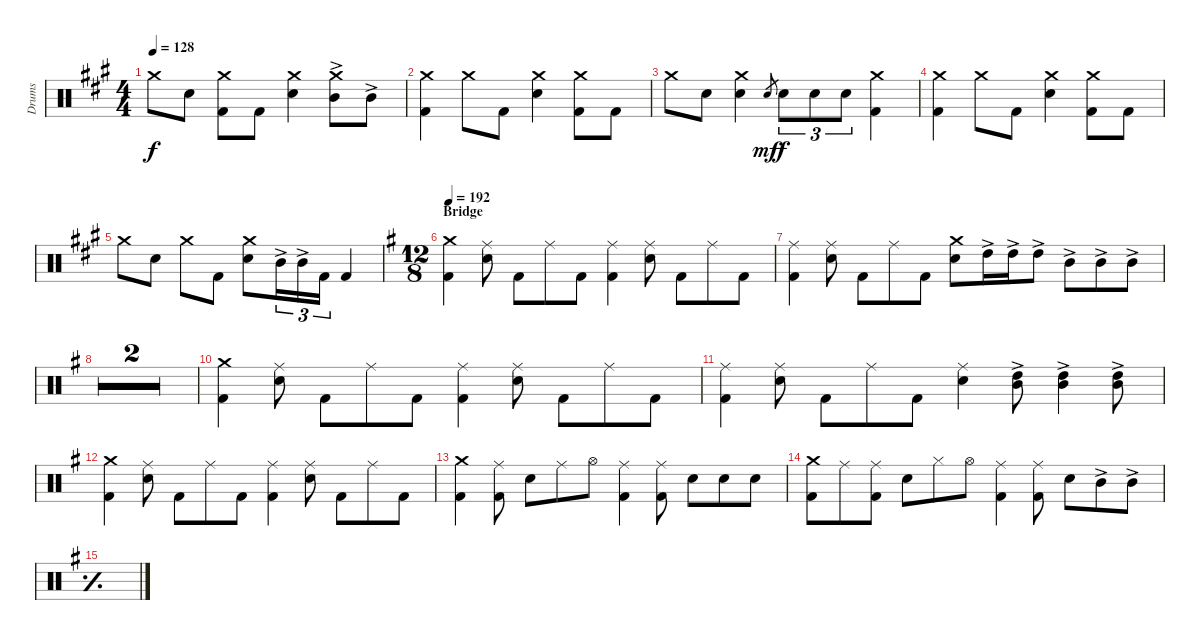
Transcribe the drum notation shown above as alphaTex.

\defaultSystemsLayout 4
\bracketExtendMode groupsimilarinstruments
\otherSystemsTrackNameOrientation horizontal
\track ("Drumkit" "Drums") {multiBarRest instrument percussion}
\staff {score}
\articulation defaults
\ts (4 4)
\tempo 128
\clef neutral
\ks a "Crash medium (hit)"{acc forcenatural}.8{dy f} "Snare (hit) 2"{acc forcenatural}.8
("Crash medium (hit)"{acc forcenatural} "Kick (hit) 2"{acc forcenatural}).8 "Kick (hit) 2"{acc forcenatural}.8 ("Crash medium (hit)"{acc forcenatural} "Snare (hit) 2"{acc forcenatural}).4 ("Crash medium (hit)"{acc forcenatural} "Mid Tom (hit)"{ac acc forcenatural}).8 "Mid Tom (hit)"{ac acc forcenatural}.8 |
("Crash medium (hit)"{acc forcenatural} "Kick (hit) 2"{acc forcenatural}).4 "Crash medium (hit)"{acc forcenatural}.8 "Kick (hit) 2"{acc forcenatural}.8 ("Crash medium (hit)"{acc forcenatural} "Snare (hit) 2"{acc forcenatural}).4 ("Crash medium (hit)"{acc forcenatural} "Kick (hit) 2"{acc forcenatural}).8 "Kick (hit) 2"{acc forcenatural}.8 |
"Crash medium (hit)"{acc forcenatural}.8 "Snare (hit) 2"{acc forcenatural}.8 ("Crash medium (hit)"{acc forcenatural} "Snare (hit) 2"{acc forcenatural}).4 "Snare (hit) 2"{acc forcenatural}.8{gr dy mf} "Snare (hit) 2"{acc forcenatural}.8{tu (3 2) dy f} "Snare (hit) 2"{acc forcenatural}.8{tu (3 2)} "Snare (hit) 2"{acc forcenatural}.8{tu (3 2)} ("Crash medium (hit)"{acc forcenatural} "Kick (hit) 2"{acc forcenatural}).4 |
("Crash medium (hit)"{acc forcenatural} "Kick (hit) 2"{acc forcenatural}).4 "Crash medium (hit)"{acc forcenatural}.8 "Kick (hit) 2"{acc forcenatural}.8 ("Crash medium (hit)"{acc forcenatural} "Snare (hit) 2"{acc forcenatural}).4 ("Crash medium (hit)"{acc forcenatural} "Kick (hit) 2"{acc forcenatural}).8 "Kick (hit) 2"{acc forcenatural}.8 |
"Crash medium (hit)"{acc forcenatural}.8 "Snare (hit) 2"{acc forcenatural}.8 "Crash medium (hit)"{acc forcenatural}.8 "Kick (hit) 2"{acc forcenatural}.8 ("Crash medium (hit)"{acc forcenatural} "Snare (hit) 2"{acc forcenatural}).8{beam merge} "Mid Tom (hit)"{ac acc forcenatural}.16{tu (3 2)} "Mid Tom (hit)"{ac acc forcenatural}.16{tu (3 2)} "Kick (hit) 2"{acc forcenatural}.16{tu (3 2)} "Kick (hit) 2"{acc forcenatural}.4 |
\ts (12 8)
\beaming (8 3 3 3 3)
\section ("" "Bridge")
\tempo 192
\ks g
("Crash medium (hit)"{acc forcenatural} "Kick (hit) 2"{acc forcenatural}).4 ("Ride (middle)"{acc forcenatural} "Snare (hit) 2"{acc forcenatural}).8 "Kick (hit) 2"{acc forcenatural}.8 "Ride (middle)"{acc forcenatural}.8 "Kick (hit) 2"{acc forcenatural}.8 ("Ride (middle)"{acc forcenatural} "Kick (hit) 2"{acc forcenatural}).4 ("Ride (middle)"{acc forcenatural} "Snare (hit) 2"{acc forcenatural}).8 "Kick (hit) 2"{acc forcenatural}.8 "Ride (middle)"{acc forcenatural}.8 "Kick (hit) 2"{acc forcenatural}.8 |
("Ride (middle)"{acc forcenatural} "Kick (hit) 2"{acc forcenatural}).4 ("Ride (middle)"{acc forcenatural} "Snare (hit) 2"{acc forcenatural}).8 "Kick (hit) 2"{acc forcenatural}.8 "Ride (middle)"{acc forcenatural}.8 "Kick (hit) 2"{acc forcenatural}.8 ("Crash medium (hit)"{acc forcenatural} "Snare (hit) 2"{acc forcenatural}).8 "High Tom (hit)"{ac acc forcenatural}.16 "High Tom (hit)"{ac acc forcenatural}.16 "High Tom (hit)"{ac acc forcenatural}.8 "Mid Tom (hit)"{ac acc forcenatural}.8 "Mid Tom (hit)"{ac acc forcenatural}.8 "Mid Tom (hit)"{ac acc forcenatural}.8 |
\simile firstofdouble
|
\simile secondofdouble
|
\simile none
("Crash medium (hit)"{acc forcenatural} "Kick (hit) 2"{acc forcenatural}).4 ("Ride (middle)"{acc forcenatural} "Snare (hit) 2"{acc forcenatural}).8 "Kick (hit) 2"{acc forcenatural}.8 "Ride (middle)"{acc forcenatural}.8 "Kick (hit) 2"{acc forcenatural}.8 ("Ride (middle)"{acc forcenatural} "Kick (hit) 2"{acc forcenatural}).4 ("Ride (middle)"{acc forcenatural} "Snare (hit) 2"{acc forcenatural}).8 "Kick (hit) 2"{acc forcenatural}.8 "Ride (middle)"{acc forcenatural}.8 "Kick (hit) 2"{acc forcenatural}.8 |
("Ride (middle)"{acc forcenatural} "Kick (hit) 2"{acc forcenatural}).4 ("Ride (middle)"{acc forcenatural} "Snare (hit) 2"{acc forcenatural}).8 "Kick (hit) 2"{acc forcenatural}.8 "Ride (middle)"{acc forcenatural}.8 "Kick (hit) 2"{acc forcenatural}.8 ("Ride (middle)"{acc forcenatural} "Snare (hit) 2"{acc forcenatural}).4 ("High Tom (hit)"{ac acc forcenatural} "Mid Tom (hit)"{ac acc forcenatural}).8 ("High Tom (hit)"{ac acc forcenatural} "Mid Tom (hit)"{ac acc forcenatural}).4 ("High Tom (hit)"{ac acc forcenatural} "Mid Tom (hit)"{ac acc forcenatural}).8 |
("Crash medium (hit)"{acc forcenatural} "Kick (hit) 2"{acc forcenatural}).4 ("Ride (middle)"{acc forcenatural} "Snare (hit) 2"{acc forcenatural}).8 "Kick (hit) 2"{acc forcenatural}.8 "Ride (middle)"{acc forcenatural}.8 "Kick (hit) 2"{acc forcenatural}.8 ("Ride (middle)"{acc forcenatural} "Kick (hit) 2"{acc forcenatural}).4 ("Ride (middle)"{acc forcenatural} "Snare (hit) 2"{acc forcenatural}).8 "Kick (hit) 2"{acc forcenatural}.8 "Ride (middle)"{acc forcenatural}.8 "Kick (hit) 2"{acc forcenatural}.8 |
("Crash medium (hit)"{acc forcenatural} "Kick (hit) 2"{acc forcenatural}).4 ("Ride (middle)"{acc forcenatural} "Kick (hit) 2"{acc forcenatural}).8 "Snare (hit) 2"{acc forcenatural}.8 "Ride (middle)"{acc forcenatural}.8 "Hi-Hat (open)"{acc forcenatural}.8 ("Ride (middle)"{acc forcenatural} "Kick (hit) 2"{acc forcenatural}).4 ("Ride (middle)"{acc forcenatural} "Kick (hit) 2"{acc forcenatural}).8 "Snare (hit) 2"{acc forcenatural}.8 "Snare (hit) 2"{acc forcenatural}.8 "Snare (hit) 2"{acc forcenatural}.8 |
("Crash medium (hit)"{acc forcenatural} "Kick (hit) 2"{acc forcenatural}).8 "Ride (middle)"{acc forcenatural}.8 ("Ride (middle)"{acc forcenatural} "Kick (hit) 2"{acc forcenatural}).8 "Snare (hit) 2"{acc forcenatural}.8 "Hi-Hat (closed)"{acc forcenatural}.8 "Hi-Hat (open)"{acc forcenatural}.8 ("Ride (middle)"{acc forcenatural} "Kick (hit) 2"{acc forcenatural}).4 ("Ride (middle)"{acc forcenatural} "Kick (hit) 2"{acc forcenatural}).8 "Snare (hit) 2"{acc forcenatural}.8 "Mid Tom (hit)"{ac acc forcenatural}.8 "Mid Tom (hit)"{ac acc forcenatural}.8 |
\simile simple
